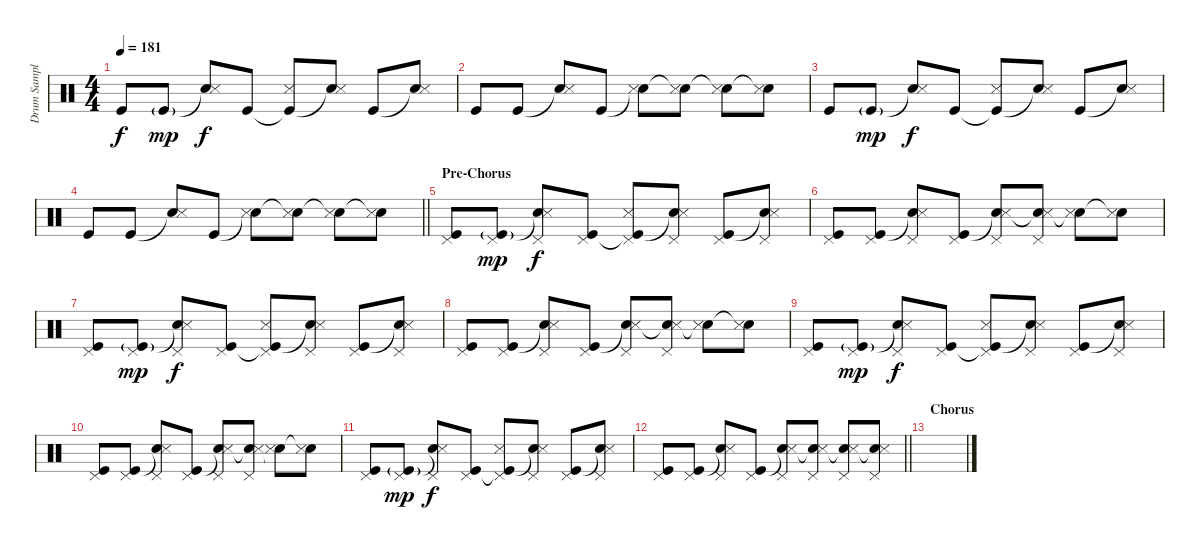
\track ("Drum Sample" "Drum Sampl") {instrument percussion}
\staff {score}
\articulation defaults
\ts (4 4)
\tempo 181
\clef neutral
\ks c "Kick (hit)".8{dy f} "Kick (hit)"{g}.8{dy mp}
("Snare (hit)"{t} "Snare (side stick) 3").8{dy f} "Kick (hit)".8 ("Kick (hit)"{t} "Metronome (hit)").8 ("Snare (hit)"{t} "Snare (side stick) 3").8 "Kick (hit)".8 ("Snare (hit)"{t} "Snare (side stick) 3").8 |
"Kick (hit)".8 "Kick (hit)".8 ("Snare (hit)"{t} "Snare (side stick) 3").8 "Kick (hit)".8 ("Snare (hit)"{t} "Metronome (hit)").8 ("Snare (hit)"{t} "Metronome (hit)").8 ("Snare (hit)"{t} "Snare (side stick) 3").8 ("Snare (hit)"{t} "Snare (side stick) 3").8 |
"Kick (hit)".8 "Kick (hit)"{g}.8{dy mp} ("Snare (hit)"{t} "Snare (side stick) 3").8{dy f} "Kick (hit)".8 ("Kick (hit)"{t} "Metronome (hit)").8 ("Snare (hit)"{t} "Snare (side stick) 3").8 "Kick (hit)".8 ("Snare (hit)"{t} "Snare (side stick) 3").8 |
\barLineRight lightlight "Kick (hit)".8 "Kick (hit)".8
("Snare (hit)"{t} "Snare (side stick) 3").8 "Kick (hit)".8 ("Snare (hit)"{t} "Metronome (hit)").8 ("Snare (hit)"{t} "Metronome (hit)").8 ("Snare (hit)"{t} "Snare (side stick) 3").8 ("Snare (hit)"{t} "Snare (side stick) 3").8 |
\section ("" "Pre-Chorus")
("Kick (hit)" "Pedal Hi-Hat (hit)").8 ("Kick (hit)"{g} "Pedal Hi-Hat (hit)").8{dy mp} ("Snare (hit)"{t} "Snare (side stick) 3" "Pedal Hi-Hat (hit)").8{dy f} ("Kick (hit)" "Pedal Hi-Hat (hit)").8 ("Kick (hit)"{t} "Metronome (hit)" "Pedal Hi-Hat (hit)").8 ("Snare (hit)"{t} "Snare (side stick) 3" "Pedal Hi-Hat (hit)").8 ("Kick (hit)" "Pedal Hi-Hat (hit)").8 ("Snare (hit)"{t} "Snare (side stick) 3" "Pedal Hi-Hat (hit)").8 |
("Kick (hit)" "Pedal Hi-Hat (hit)").8 ("Kick (hit)" "Pedal Hi-Hat (hit)").8 ("Snare (hit)"{t} "Snare (side stick) 3" "Pedal Hi-Hat (hit)").8 ("Kick (hit)" "Pedal Hi-Hat (hit)").8 ("Snare (hit)"{t} "Metronome (hit)" "Pedal Hi-Hat (hit)").8 ("Snare (hit)"{t} "Metronome (hit)" "Pedal Hi-Hat (hit)").8 ("Snare (hit)"{t} "Snare (side stick) 3").8 ("Snare (hit)"{t} "Snare (side stick) 3").8 |
("Kick (hit)" "Pedal Hi-Hat (hit)").8 ("Kick (hit)"{g} "Pedal Hi-Hat (hit)").8{dy mp} ("Snare (hit)"{t} "Snare (side stick) 3" "Pedal Hi-Hat (hit)").8{dy f} ("Kick (hit)" "Pedal Hi-Hat (hit)").8 ("Kick (hit)"{t} "Metronome (hit)" "Pedal Hi-Hat (hit)").8 ("Snare (hit)"{t} "Snare (side stick) 3" "Pedal Hi-Hat (hit)").8 ("Kick (hit)" "Pedal Hi-Hat (hit)").8 ("Snare (hit)"{t} "Snare (side stick) 3" "Pedal Hi-Hat (hit)").8 |
("Kick (hit)" "Pedal Hi-Hat (hit)").8 ("Kick (hit)" "Pedal Hi-Hat (hit)").8 ("Snare (hit)"{t} "Snare (side stick) 3" "Pedal Hi-Hat (hit)").8 ("Kick (hit)" "Pedal Hi-Hat (hit)").8 ("Snare (hit)"{t} "Metronome (hit)" "Pedal Hi-Hat (hit)").8 ("Snare (hit)"{t} "Metronome (hit)" "Pedal Hi-Hat (hit)").8 ("Snare (hit)"{t} "Snare (side stick) 3").8 ("Snare (hit)"{t} "Snare (side stick) 3").8 |
("Kick (hit)" "Pedal Hi-Hat (hit)").8 ("Kick (hit)"{g} "Pedal Hi-Hat (hit)").8{dy mp} ("Snare (hit)"{t} "Snare (side stick) 3" "Pedal Hi-Hat (hit)").8{dy f} ("Kick (hit)" "Pedal Hi-Hat (hit)").8 ("Kick (hit)"{t} "Metronome (hit)" "Pedal Hi-Hat (hit)").8 ("Snare (hit)"{t} "Snare (side stick) 3" "Pedal Hi-Hat (hit)").8 ("Kick (hit)" "Pedal Hi-Hat (hit)").8 ("Snare (hit)"{t} "Snare (side stick) 3" "Pedal Hi-Hat (hit)").8 |
("Kick (hit)" "Pedal Hi-Hat (hit)").8 ("Kick (hit)" "Pedal Hi-Hat (hit)").8 ("Snare (hit)"{t} "Snare (side stick) 3" "Pedal Hi-Hat (hit)").8 ("Kick (hit)" "Pedal Hi-Hat (hit)").8 ("Snare (hit)"{t} "Metronome (hit)" "Pedal Hi-Hat (hit)").8 ("Snare (hit)"{t} "Metronome (hit)" "Pedal Hi-Hat (hit)").8 ("Snare (hit)"{t} "Snare (side stick) 3").8 ("Snare (hit)"{t} "Snare (side stick) 3").8 |
("Kick (hit)" "Pedal Hi-Hat (hit)").8 ("Kick (hit)"{g} "Pedal Hi-Hat (hit)").8{dy mp} ("Snare (hit)"{t} "Snare (side stick) 3" "Pedal Hi-Hat (hit)").8{dy f} ("Kick (hit)" "Pedal Hi-Hat (hit)").8 ("Kick (hit)"{t} "Metronome (hit)" "Pedal Hi-Hat (hit)").8 ("Snare (hit)"{t} "Snare (side stick) 3" "Pedal Hi-Hat (hit)").8 ("Kick (hit)" "Pedal Hi-Hat (hit)").8 ("Snare (hit)"{t} "Snare (side stick) 3" "Pedal Hi-Hat (hit)").8 |
\barLineRight lightlight
("Kick (hit)" "Pedal Hi-Hat (hit)").8 ("Kick (hit)" "Pedal Hi-Hat (hit)").8 ("Snare (hit)"{t} "Snare (side stick) 3" "Pedal Hi-Hat (hit)").8 ("Kick (hit)" "Pedal Hi-Hat (hit)").8 ("Snare (hit)"{t} "Metronome (hit)" "Pedal Hi-Hat (hit)").8 ("Snare (hit)"{t} "Metronome (hit)" "Pedal Hi-Hat (hit)").8 ("Snare (hit)"{t} "Snare (side stick) 3" "Pedal Hi-Hat (hit)").8 ("Snare (hit)"{t} "Snare (side stick) 3" "Pedal Hi-Hat (hit)").8 |
\section ("" "Chorus")
